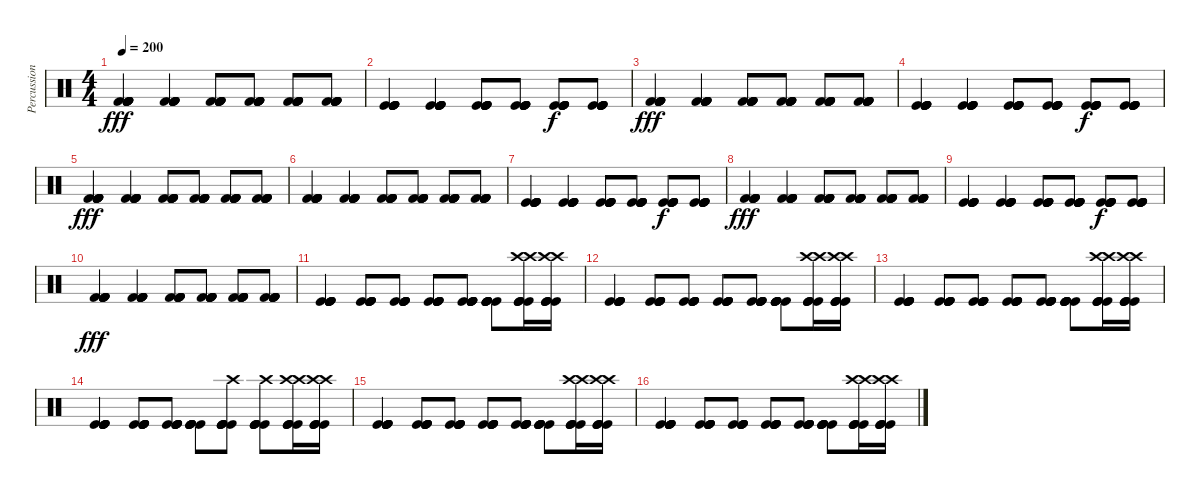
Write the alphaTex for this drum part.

\track ("Percussion" "Percussion") {instrument percussion}
\staff {score}
\articulation defaults
\ts (4 4)
\tempo 200
\clef neutral
\ks c
("Kick (hit) 2" "Kick (hit) 2" "Kick (hit) 2" "Kick (hit) 2" "Kick (hit) 2" "Kick (hit) 2").4{dy fff} ("Kick (hit) 2" "Kick (hit) 2" "Kick (hit) 2" "Kick (hit) 2" "Kick (hit) 2" "Kick (hit) 2").4 ("Kick (hit) 2" "Kick (hit) 2" "Kick (hit) 2" "Kick (hit) 2" "Kick (hit) 2" "Kick (hit) 2").8 ("Kick (hit) 2" "Kick (hit) 2" "Kick (hit) 2" "Kick (hit) 2" "Kick (hit) 2" "Kick (hit) 2").8 ("Kick (hit) 2" "Kick (hit) 2" "Kick (hit) 2" "Kick (hit) 2" "Kick (hit) 2" "Kick (hit) 2").8 ("Kick (hit) 2" "Kick (hit) 2" "Kick (hit) 2" "Kick (hit) 2" "Kick (hit) 2" "Kick (hit) 2").8 |
("Kick (hit)" "Kick (hit)" "Kick (hit)" "Kick (hit)" "Kick (hit)" "Kick (hit)").4 ("Kick (hit)" "Kick (hit)" "Kick (hit)" "Kick (hit)" "Kick (hit)" "Kick (hit)").4 ("Kick (hit)" "Kick (hit)" "Kick (hit)" "Kick (hit)" "Kick (hit)" "Kick (hit)").8 ("Kick (hit)" "Kick (hit)" "Kick (hit)" "Kick (hit)" "Kick (hit)" "Kick (hit)").8 ("Kick (hit)" "Kick (hit)" "Kick (hit)" "Kick (hit)" "Kick (hit)" "Kick (hit)").8{dy f} ("Kick (hit)" "Kick (hit)" "Kick (hit)" "Kick (hit)" "Kick (hit)" "Kick (hit)").8 |
("Kick (hit) 2" "Kick (hit) 2" "Kick (hit) 2" "Kick (hit) 2" "Kick (hit) 2" "Kick (hit) 2").4{dy fff} ("Kick (hit) 2" "Kick (hit) 2" "Kick (hit) 2" "Kick (hit) 2" "Kick (hit) 2" "Kick (hit) 2").4 ("Kick (hit) 2" "Kick (hit) 2" "Kick (hit) 2" "Kick (hit) 2" "Kick (hit) 2" "Kick (hit) 2").8 ("Kick (hit) 2" "Kick (hit) 2" "Kick (hit) 2" "Kick (hit) 2" "Kick (hit) 2" "Kick (hit) 2").8 ("Kick (hit) 2" "Kick (hit) 2" "Kick (hit) 2" "Kick (hit) 2" "Kick (hit) 2" "Kick (hit) 2").8 ("Kick (hit) 2" "Kick (hit) 2" "Kick (hit) 2" "Kick (hit) 2" "Kick (hit) 2" "Kick (hit) 2").8 |
("Kick (hit)" "Kick (hit)" "Kick (hit)" "Kick (hit)" "Kick (hit)" "Kick (hit)").4 ("Kick (hit)" "Kick (hit)" "Kick (hit)" "Kick (hit)" "Kick (hit)" "Kick (hit)").4 ("Kick (hit)" "Kick (hit)" "Kick (hit)" "Kick (hit)" "Kick (hit)" "Kick (hit)").8 ("Kick (hit)" "Kick (hit)" "Kick (hit)" "Kick (hit)" "Kick (hit)" "Kick (hit)").8 ("Kick (hit)" "Kick (hit)" "Kick (hit)" "Kick (hit)" "Kick (hit)" "Kick (hit)").8{dy f} ("Kick (hit)" "Kick (hit)" "Kick (hit)" "Kick (hit)" "Kick (hit)" "Kick (hit)").8 |
("Kick (hit) 2" "Kick (hit) 2" "Kick (hit) 2" "Kick (hit) 2" "Kick (hit) 2" "Kick (hit) 2").4{dy fff} ("Kick (hit) 2" "Kick (hit) 2" "Kick (hit) 2" "Kick (hit) 2" "Kick (hit) 2" "Kick (hit) 2").4 ("Kick (hit) 2" "Kick (hit) 2" "Kick (hit) 2" "Kick (hit) 2" "Kick (hit) 2" "Kick (hit) 2").8 ("Kick (hit) 2" "Kick (hit) 2" "Kick (hit) 2" "Kick (hit) 2" "Kick (hit) 2" "Kick (hit) 2").8 ("Kick (hit) 2" "Kick (hit) 2" "Kick (hit) 2" "Kick (hit) 2" "Kick (hit) 2" "Kick (hit) 2").8 ("Kick (hit) 2" "Kick (hit) 2" "Kick (hit) 2" "Kick (hit) 2" "Kick (hit) 2" "Kick (hit) 2").8 |
("Kick (hit) 2" "Kick (hit) 2" "Kick (hit) 2" "Kick (hit) 2" "Kick (hit) 2" "Kick (hit) 2").4 ("Kick (hit) 2" "Kick (hit) 2" "Kick (hit) 2" "Kick (hit) 2" "Kick (hit) 2" "Kick (hit) 2").4 ("Kick (hit) 2" "Kick (hit) 2" "Kick (hit) 2" "Kick (hit) 2" "Kick (hit) 2" "Kick (hit) 2").8 ("Kick (hit) 2" "Kick (hit) 2" "Kick (hit) 2" "Kick (hit) 2" "Kick (hit) 2" "Kick (hit) 2").8 ("Kick (hit) 2" "Kick (hit) 2" "Kick (hit) 2" "Kick (hit) 2" "Kick (hit) 2" "Kick (hit) 2").8 ("Kick (hit) 2" "Kick (hit) 2" "Kick (hit) 2" "Kick (hit) 2" "Kick (hit) 2" "Kick (hit) 2").8 |
("Kick (hit)" "Kick (hit)" "Kick (hit)" "Kick (hit)" "Kick (hit)" "Kick (hit)").4 ("Kick (hit)" "Kick (hit)" "Kick (hit)" "Kick (hit)" "Kick (hit)" "Kick (hit)").4 ("Kick (hit)" "Kick (hit)" "Kick (hit)" "Kick (hit)" "Kick (hit)" "Kick (hit)").8 ("Kick (hit)" "Kick (hit)" "Kick (hit)" "Kick (hit)" "Kick (hit)" "Kick (hit)").8 ("Kick (hit)" "Kick (hit)" "Kick (hit)" "Kick (hit)" "Kick (hit)" "Kick (hit)").8{dy f} ("Kick (hit)" "Kick (hit)" "Kick (hit)" "Kick (hit)" "Kick (hit)" "Kick (hit)").8 |
("Kick (hit) 2" "Kick (hit) 2" "Kick (hit) 2" "Kick (hit) 2" "Kick (hit) 2" "Kick (hit) 2").4{dy fff} ("Kick (hit) 2" "Kick (hit) 2" "Kick (hit) 2" "Kick (hit) 2" "Kick (hit) 2" "Kick (hit) 2").4 ("Kick (hit) 2" "Kick (hit) 2" "Kick (hit) 2" "Kick (hit) 2" "Kick (hit) 2" "Kick (hit) 2").8 ("Kick (hit) 2" "Kick (hit) 2" "Kick (hit) 2" "Kick (hit) 2" "Kick (hit) 2" "Kick (hit) 2").8 ("Kick (hit) 2" "Kick (hit) 2" "Kick (hit) 2" "Kick (hit) 2" "Kick (hit) 2" "Kick (hit) 2").8 ("Kick (hit) 2" "Kick (hit) 2" "Kick (hit) 2" "Kick (hit) 2" "Kick (hit) 2" "Kick (hit) 2").8 |
("Kick (hit)" "Kick (hit)" "Kick (hit)" "Kick (hit)" "Kick (hit)" "Kick (hit)").4 ("Kick (hit)" "Kick (hit)" "Kick (hit)" "Kick (hit)" "Kick (hit)" "Kick (hit)").4 ("Kick (hit)" "Kick (hit)" "Kick (hit)" "Kick (hit)" "Kick (hit)" "Kick (hit)").8 ("Kick (hit)" "Kick (hit)" "Kick (hit)" "Kick (hit)" "Kick (hit)" "Kick (hit)").8 ("Kick (hit)" "Kick (hit)" "Kick (hit)" "Kick (hit)" "Kick (hit)" "Kick (hit)").8{dy f} ("Kick (hit)" "Kick (hit)" "Kick (hit)" "Kick (hit)" "Kick (hit)" "Kick (hit)").8 |
("Kick (hit) 2" "Kick (hit) 2" "Kick (hit) 2" "Kick (hit) 2" "Kick (hit) 2" "Kick (hit) 2").4{dy fff} ("Kick (hit) 2" "Kick (hit) 2" "Kick (hit) 2" "Kick (hit) 2" "Kick (hit) 2" "Kick (hit) 2").4 ("Kick (hit) 2" "Kick (hit) 2" "Kick (hit) 2" "Kick (hit) 2" "Kick (hit) 2" "Kick (hit) 2").8 ("Kick (hit) 2" "Kick (hit) 2" "Kick (hit) 2" "Kick (hit) 2" "Kick (hit) 2" "Kick (hit) 2").8 ("Kick (hit) 2" "Kick (hit) 2" "Kick (hit) 2" "Kick (hit) 2" "Kick (hit) 2" "Kick (hit) 2").8 ("Kick (hit) 2" "Kick (hit) 2" "Kick (hit) 2" "Kick (hit) 2" "Kick (hit) 2" "Kick (hit) 2").8 |
("Kick (hit)" "Kick (hit)" "Kick (hit)" "Kick (hit)" "Kick (hit)" "Kick (hit)").4 ("Kick (hit)" "Kick (hit)" "Kick (hit)" "Kick (hit)" "Kick (hit)" "Kick (hit)").8 ("Kick (hit)" "Kick (hit)" "Kick (hit)" "Kick (hit)" "Kick (hit)" "Kick (hit)").8 ("Kick (hit)" "Kick (hit)" "Kick (hit)" "Kick (hit)" "Kick (hit)" "Kick (hit)").8 ("Kick (hit)" "Kick (hit)" "Kick (hit)" "Kick (hit)" "Kick (hit)" "Kick (hit)").8 ("Kick (hit)" "Kick (hit)" "Kick (hit)" "Kick (hit)" "Kick (hit)" "Kick (hit)").8 ("Crash high (hit)" "Kick (hit)" "Kick (hit)" "Kick (hit)" "Crash high (hit)" "Kick (hit)").16 ("Kick (hit)" "Kick (hit)" "Crash high (hit)" "Kick (hit)" "Kick (hit)" "Crash high (hit)").16 |
("Kick (hit)" "Kick (hit)" "Kick (hit)" "Kick (hit)" "Kick (hit)" "Kick (hit)").4 ("Kick (hit)" "Kick (hit)" "Kick (hit)" "Kick (hit)" "Kick (hit)" "Kick (hit)").8 ("Kick (hit)" "Kick (hit)" "Kick (hit)" "Kick (hit)" "Kick (hit)" "Kick (hit)").8 ("Kick (hit)" "Kick (hit)" "Kick (hit)" "Kick (hit)" "Kick (hit)" "Kick (hit)").8 ("Kick (hit)" "Kick (hit)" "Kick (hit)" "Kick (hit)" "Kick (hit)" "Kick (hit)").8 ("Kick (hit)" "Kick (hit)" "Kick (hit)" "Kick (hit)" "Kick (hit)" "Kick (hit)").8 ("Crash high (hit)" "Kick (hit)" "Kick (hit)" "Kick (hit)" "Crash high (hit)" "Kick (hit)").16 ("Kick (hit)" "Kick (hit)" "Crash high (hit)" "Kick (hit)" "Kick (hit)" "Crash high (hit)").16 |
("Kick (hit)" "Kick (hit)" "Kick (hit)" "Kick (hit)" "Kick (hit)" "Kick (hit)").4 ("Kick (hit)" "Kick (hit)" "Kick (hit)" "Kick (hit)" "Kick (hit)" "Kick (hit)").8 ("Kick (hit)" "Kick (hit)" "Kick (hit)" "Kick (hit)" "Kick (hit)" "Kick (hit)").8 ("Kick (hit)" "Kick (hit)" "Kick (hit)" "Kick (hit)" "Kick (hit)" "Kick (hit)").8 ("Kick (hit)" "Kick (hit)" "Kick (hit)" "Kick (hit)" "Kick (hit)" "Kick (hit)").8 ("Kick (hit)" "Kick (hit)" "Kick (hit)" "Kick (hit)" "Kick (hit)" "Kick (hit)").8 ("Crash high (hit)" "Kick (hit)" "Kick (hit)" "Kick (hit)" "Crash high (hit)" "Kick (hit)").16 ("Kick (hit)" "Kick (hit)" "Crash high (hit)" "Kick (hit)" "Kick (hit)" "Crash high (hit)").16 |
("Kick (hit)" "Kick (hit)" "Kick (hit)" "Kick (hit)" "Kick (hit)" "Kick (hit)").4 ("Kick (hit)" "Kick (hit)" "Kick (hit)" "Kick (hit)" "Kick (hit)" "Kick (hit)").8 ("Kick (hit)" "Kick (hit)" "Kick (hit)" "Kick (hit)" "Kick (hit)" "Kick (hit)").8 ("Kick (hit)" "Kick (hit)" "Kick (hit)" "Kick (hit)" "Kick (hit)" "Kick (hit)").8 ("Kick (hit)" "Kick (hit)" "Kick (hit)" "Kick (hit)" "Crash high (hit)" "Kick (hit)").8 ("Kick (hit)" "Kick (hit)" "Crash high (hit)" "Kick (hit)" "Kick (hit)" "Kick (hit)").8 ("Crash high (hit)" "Kick (hit)" "Kick (hit)" "Kick (hit)" "Crash high (hit)" "Kick (hit)").16 ("Kick (hit)" "Kick (hit)" "Crash high (hit)" "Kick (hit)" "Kick (hit)" "Crash high (hit)").16 |
("Kick (hit)" "Kick (hit)" "Kick (hit)" "Kick (hit)" "Kick (hit)" "Kick (hit)").4 ("Kick (hit)" "Kick (hit)" "Kick (hit)" "Kick (hit)" "Kick (hit)" "Kick (hit)").8 ("Kick (hit)" "Kick (hit)" "Kick (hit)" "Kick (hit)" "Kick (hit)" "Kick (hit)").8 ("Kick (hit)" "Kick (hit)" "Kick (hit)" "Kick (hit)" "Kick (hit)" "Kick (hit)").8 ("Kick (hit)" "Kick (hit)" "Kick (hit)" "Kick (hit)" "Kick (hit)" "Kick (hit)").8 ("Kick (hit)" "Kick (hit)" "Kick (hit)" "Kick (hit)" "Kick (hit)" "Kick (hit)").8 ("Crash high (hit)" "Kick (hit)" "Kick (hit)" "Kick (hit)" "Crash high (hit)" "Kick (hit)").16 ("Kick (hit)" "Kick (hit)" "Crash high (hit)" "Kick (hit)" "Kick (hit)" "Crash high (hit)").16 |
("Kick (hit)" "Kick (hit)" "Kick (hit)" "Kick (hit)" "Kick (hit)" "Kick (hit)").4 ("Kick (hit)" "Kick (hit)" "Kick (hit)" "Kick (hit)" "Kick (hit)" "Kick (hit)").8 ("Kick (hit)" "Kick (hit)" "Kick (hit)" "Kick (hit)" "Kick (hit)" "Kick (hit)").8 ("Kick (hit)" "Kick (hit)" "Kick (hit)" "Kick (hit)" "Kick (hit)" "Kick (hit)").8 ("Kick (hit)" "Kick (hit)" "Kick (hit)" "Kick (hit)" "Kick (hit)" "Kick (hit)").8 ("Kick (hit)" "Kick (hit)" "Kick (hit)" "Kick (hit)" "Kick (hit)" "Kick (hit)").8 ("Crash high (hit)" "Kick (hit)" "Kick (hit)" "Kick (hit)" "Crash high (hit)" "Kick (hit)").16 ("Kick (hit)" "Kick (hit)" "Crash high (hit)" "Kick (hit)" "Kick (hit)" "Crash high (hit)").16
